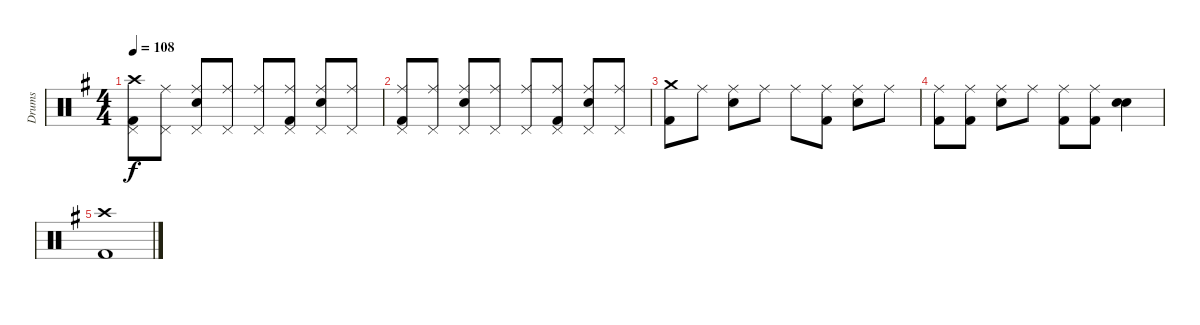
\track ("Drums" "Drums") {instrument percussion}
\staff {score}
\articulation defaults
\ts (4 4)
\tempo 108
\clef neutral
\ks g
("Crash high (hit)" "Kick (hit) 2" "Pedal Hi-Hat (hit)").8{dy f} ("Ride (middle)" "Pedal Hi-Hat (hit)").8 ("Ride (middle)" "Electric Snare (hit)" "Pedal Hi-Hat (hit)").8 ("Ride (middle)" "Pedal Hi-Hat (hit)").8 ("Ride (middle)" "Pedal Hi-Hat (hit)").8 ("Ride (middle)" "Kick (hit) 2" "Pedal Hi-Hat (hit)").8 ("Ride (middle)" "Electric Snare (hit)" "Pedal Hi-Hat (hit)").8 ("Ride (middle)" "Pedal Hi-Hat (hit)").8 |
("Ride (middle)" "Kick (hit) 2" "Pedal Hi-Hat (hit)").8 ("Ride (middle)" "Pedal Hi-Hat (hit)").8 ("Ride (middle)" "Electric Snare (hit)" "Pedal Hi-Hat (hit)").8 ("Ride (middle)" "Pedal Hi-Hat (hit)").8 ("Ride (middle)" "Pedal Hi-Hat (hit)").8 ("Ride (middle)" "Kick (hit) 2" "Pedal Hi-Hat (hit)").8 ("Ride (middle)" "Electric Snare (hit)" "Pedal Hi-Hat (hit)").8 ("Ride (middle)" "Pedal Hi-Hat (hit)").8 |
("Crash medium (hit)" "Kick (hit) 2").8 "Ride (middle)".8 ("Ride (middle)" "Electric Snare (hit)").8 "Ride (middle)".8 "Ride (middle)".8 ("Ride (middle)" "Kick (hit) 2").8 ("Ride (middle)" "Electric Snare (hit)").8 "Ride (middle)".8 |
("Ride (middle)" "Kick (hit) 2").8 ("Ride (middle)" "Kick (hit) 2").8 ("Ride (middle)" "Electric Snare (hit)").8 "Ride (middle)".8 ("Ride (middle)" "Kick (hit) 2").8 ("Ride (middle)" "Kick (hit) 2").8 ("Electric Snare (hit)" "Electric Snare (hit)").4 |
("Crash high (hit)" "Kick (hit) 2").1
